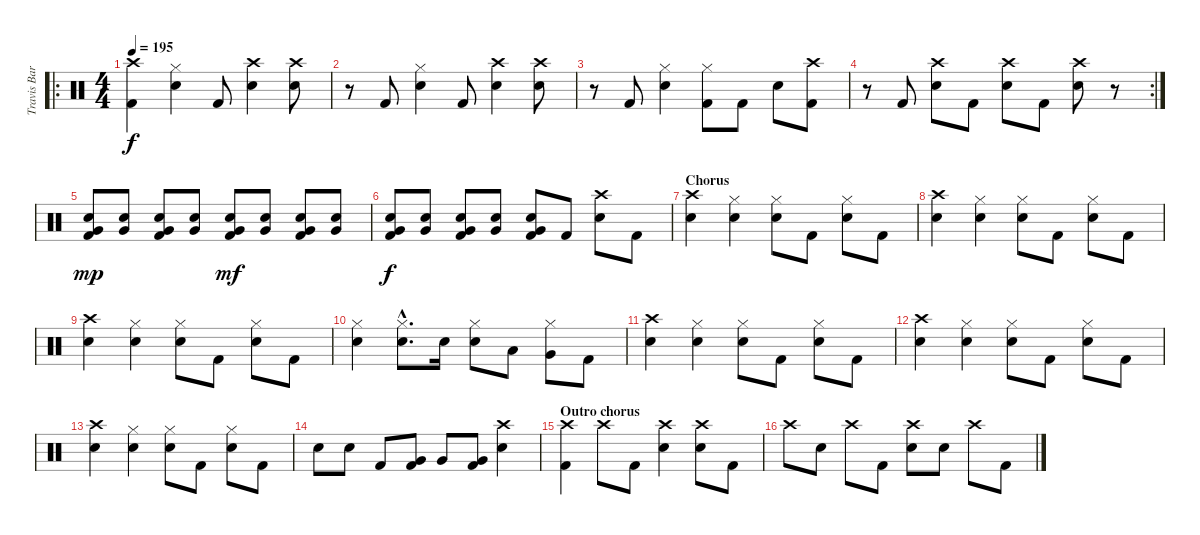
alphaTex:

\track ("Travis Barker (Schlagzeug)" "Travis Bar") {instrument percussion}
\staff {score}
\articulation defaults
\ro
\ts (4 4)
\tempo 195
\clef neutral
\ks c
("Crash high (hit)" "Kick (hit) 2").4{dy f} ("Hi-Hat (closed)" "Electric Snare (hit)").4 "Kick (hit) 2".8 ("Crash high (hit)" "Electric Snare (hit)").4 ("Crash high (hit)" "Electric Snare (hit)").8 |
r.8 "Kick (hit) 2".8 ("Hi-Hat (closed)" "Electric Snare (hit)").4 "Kick (hit) 2".8 ("Crash high (hit)" "Electric Snare (hit)").4 ("Crash high (hit)" "Electric Snare (hit)").8 |
r.8 "Kick (hit) 2".8 ("Hi-Hat (closed)" "Electric Snare (hit)").4 ("Hi-Hat (closed)" "Kick (hit) 2").8 "Kick (hit) 2".8 "Electric Snare (hit)".8 ("Crash high (hit)" "Kick (hit) 2").8 |
\rc 2
r.8 "Kick (hit) 2".8 ("Crash high (hit)" "Electric Snare (hit)").8 "Kick (hit) 2".8 ("Crash high (hit)" "Electric Snare (hit)").8 "Kick (hit) 2".8 ("Crash high (hit)" "Electric Snare (hit)").8 r.8 |
("Very Low Tom (hit)" "Electric Snare (hit)" "Kick (hit) 2").8{dy mp} ("Very Low Tom (hit)" "Electric Snare (hit)").8 ("Very Low Tom (hit)" "Electric Snare (hit)" "Kick (hit) 2").8 ("Very Low Tom (hit)" "Electric Snare (hit)").8 ("Very Low Tom (hit)" "Electric Snare (hit)" "Kick (hit) 2").8{dy mf} ("Very Low Tom (hit)" "Electric Snare (hit)").8 ("Very Low Tom (hit)" "Electric Snare (hit)" "Kick (hit) 2").8 ("Very Low Tom (hit)" "Electric Snare (hit)").8 |
("Very Low Tom (hit)" "Electric Snare (hit)" "Kick (hit) 2").8{dy f} ("Very Low Tom (hit)" "Electric Snare (hit)").8 ("Very Low Tom (hit)" "Electric Snare (hit)" "Kick (hit) 2").8 ("Very Low Tom (hit)" "Electric Snare (hit)").8 ("Very Low Tom (hit)" "Electric Snare (hit)" "Kick (hit) 2").8 "Kick (hit) 2".8 ("Crash high (hit)" "Electric Snare (hit)").8 "Kick (hit) 2".8 |
\section ("" "Chorus")
("Crash high (hit)" "Electric Snare (hit)").4 ("Hi-Hat (closed)" "Electric Snare (hit)").4 ("Hi-Hat (closed)" "Electric Snare (hit)").8 "Kick (hit) 2".8 ("Hi-Hat (closed)" "Electric Snare (hit)").8 "Kick (hit) 2".8 |
("Crash high (hit)" "Electric Snare (hit)").4 ("Hi-Hat (closed)" "Electric Snare (hit)").4 ("Hi-Hat (closed)" "Electric Snare (hit)").8 "Kick (hit) 2".8 ("Hi-Hat (closed)" "Electric Snare (hit)").8 "Kick (hit) 2".8 |
("Crash high (hit)" "Electric Snare (hit)").4 ("Hi-Hat (closed)" "Electric Snare (hit)").4 ("Hi-Hat (closed)" "Electric Snare (hit)").8 "Kick (hit) 2".8 ("Hi-Hat (closed)" "Electric Snare (hit)").8 "Kick (hit) 2".8 |
("Hi-Hat (closed)" "Electric Snare (hit)").4 ("Hi-Hat (closed)"{hac} "Electric Snare (hit)"{hac}).8{d} "Electric Snare (hit)".16 ("Hi-Hat (closed)" "Electric Snare (hit)").8 "Low Tom (hit)".8 ("Very Low Tom (hit)" "Hi-Hat (closed)").8 "Kick (hit) 2".8 |
("Crash high (hit)" "Electric Snare (hit)").4 ("Hi-Hat (closed)" "Electric Snare (hit)").4 ("Hi-Hat (closed)" "Electric Snare (hit)").8 "Kick (hit) 2".8 ("Hi-Hat (closed)" "Electric Snare (hit)").8 "Kick (hit) 2".8 |
("Crash high (hit)" "Electric Snare (hit)").4 ("Hi-Hat (closed)" "Electric Snare (hit)").4 ("Hi-Hat (closed)" "Electric Snare (hit)").8 "Kick (hit) 2".8 ("Hi-Hat (closed)" "Electric Snare (hit)").8 "Kick (hit) 2".8 |
("Crash high (hit)" "Electric Snare (hit)").4 ("Hi-Hat (closed)" "Electric Snare (hit)").4 ("Hi-Hat (closed)" "Electric Snare (hit)").8 "Kick (hit) 2".8 ("Hi-Hat (closed)" "Electric Snare (hit)").8 "Kick (hit) 2".8 |
"Electric Snare (hit)".8 "Electric Snare (hit)".8 "Kick (hit) 2".8 ("Very Low Tom (hit)" "Kick (hit) 2").8 "Very Low Tom (hit)".8 ("Very Low Tom (hit)" "Kick (hit) 2").8 ("Crash high (hit)" "Electric Snare (hit)").4 |
\section ("" "Outro chorus")
("Crash high (hit)" "Kick (hit) 2").4 "Crash high (hit)".8 "Kick (hit) 2".8 ("Crash high (hit)" "Electric Snare (hit)").4 ("Crash high (hit)" "Electric Snare (hit)").8 "Kick (hit) 2".8 |
"Crash high (hit)".8 "Electric Snare (hit)".8 "Crash high (hit)".8 "Kick (hit) 2".8 ("Crash high (hit)" "Electric Snare (hit)").8 "Electric Snare (hit)".8 "Crash high (hit)".8 "Kick (hit) 2".8
